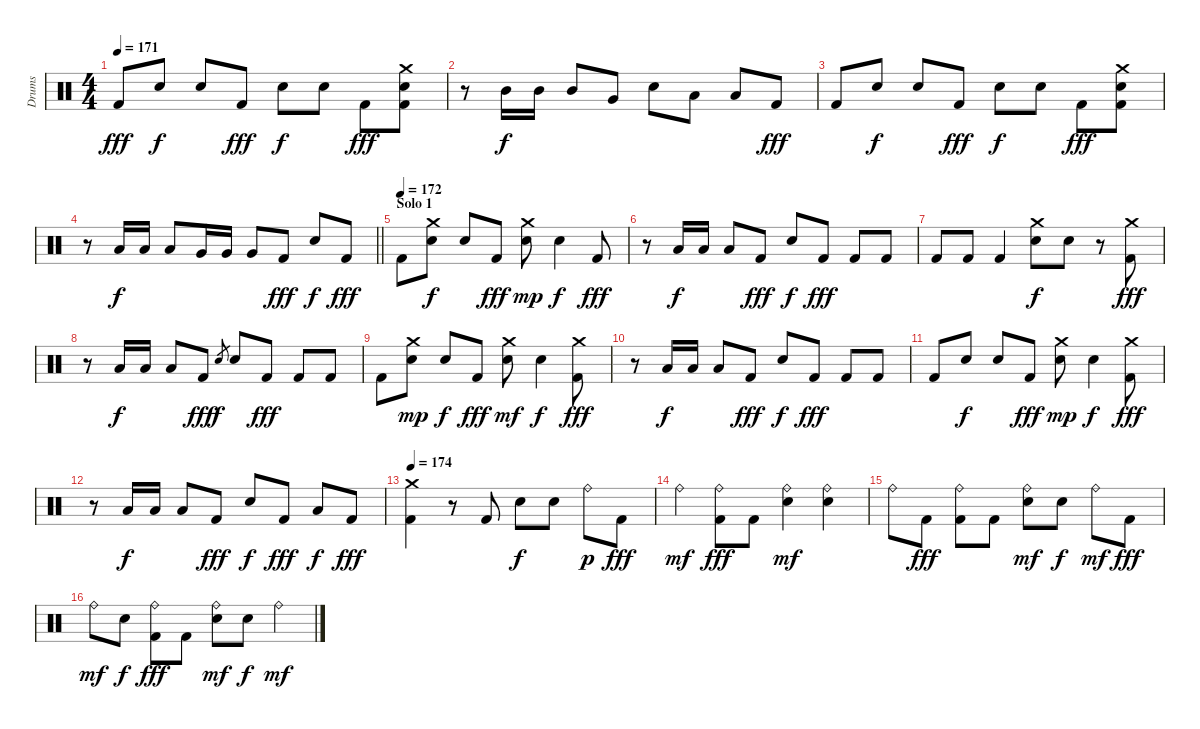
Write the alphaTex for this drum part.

\track ("Drums" "Drums") {instrument percussion}
\staff {score}
\articulation defaults
\ts (4 4)
\tempo 171
\clef neutral
\ks c "Kick (hit) 2".8{dy fff} "Electric Snare (hit)".8{dy f} "Electric Snare (hit)".8 "Kick (hit) 2".8{dy fff} "Electric Snare (hit)".8{dy f} "Electric Snare (hit)".8 "Kick (hit) 2".8{dy fff}
("Crash medium (hit)" "Electric Snare (hit)" "Kick (hit) 2").8 |
r.8 "Mid Tom (hit)".16{dy f} "Mid Tom (hit)".16 "Mid Tom (hit)".8 "Very Low Tom (hit)".8 "Electric Snare (hit)".8 "Low Floor Tom (hit)".8 "Low Floor Tom (hit)".8 "Kick (hit) 2".8{dy fff} |
"Kick (hit) 2".8 "Electric Snare (hit)".8{dy f} "Electric Snare (hit)".8 "Kick (hit) 2".8{dy fff} "Electric Snare (hit)".8{dy f} "Electric Snare (hit)".8 "Kick (hit) 2".8{dy fff} ("Crash medium (hit)" "Electric Snare (hit)" "Kick (hit) 2").8 |
\barLineRight lightlight
r.8 "Low Tom (hit)".16{dy f} "Low Tom (hit)".16 "Low Tom (hit)".8 "Very Low Tom (hit)".16 "Very Low Tom (hit)".16 "Very Low Tom (hit)".8 "Kick (hit) 2".8{dy fff} "Electric Snare (hit)".8{dy f} "Kick (hit) 2".8{dy fff} |
\section ("" "Solo 1")
\tempo (172)
"Kick (hit) 2".8 ("Crash medium (hit)" "Electric Snare (hit)").8{dy f} "Electric Snare (hit)".8 "Kick (hit) 2".8{dy fff} ("Crash medium (hit)" "Electric Snare (hit)").8{dy mp} "Electric Snare (hit)".4{dy f} "Kick (hit) 2".8{dy fff} |
r.8 "Low Floor Tom (hit)".16{dy f} "Low Floor Tom (hit)".16 "Low Floor Tom (hit)".8 "Kick (hit) 2".8{dy fff} "Electric Snare (hit)".8{dy f} "Kick (hit) 2".8{dy fff} "Kick (hit) 2".8 "Kick (hit) 2".8 |
"Kick (hit) 2".8 "Kick (hit) 2".8 "Kick (hit) 2".4 ("Crash medium (hit)" "Electric Snare (hit)").8{dy f} "Electric Snare (hit)".8 r.8 ("Crash medium (hit)" "Kick (hit) 2").8{dy fff} |
r.8 "Low Floor Tom (hit)".16{dy f} "Low Floor Tom (hit)".16 "Low Floor Tom (hit)".8 "Kick (hit) 2".8{dy fff} "Electric Snare (hit)".8{gr dy f} "Electric Snare (hit)".8 "Kick (hit) 2".8{dy fff} "Kick (hit) 2".8 "Kick (hit) 2".8 |
"Kick (hit) 2".8 ("Crash medium (hit)" "Electric Snare (hit)").8{dy mp} "Electric Snare (hit)".8{dy f} "Kick (hit) 2".8{dy fff} ("Crash medium (hit)" "Electric Snare (hit)").8{dy mf} "Electric Snare (hit)".4{dy f} ("Crash medium (hit)" "Kick (hit) 2").8{dy fff} |
r.8 "Low Floor Tom (hit)".16{dy f} "Low Floor Tom (hit)".16 "Low Floor Tom (hit)".8 "Kick (hit) 2".8{dy fff} "Electric Snare (hit)".8{dy f} "Kick (hit) 2".8{dy fff} "Kick (hit) 2".8 "Kick (hit) 2".8 |
"Kick (hit) 2".8 "Electric Snare (hit)".8{dy f} "Electric Snare (hit)".8 "Kick (hit) 2".8{dy fff} ("Crash medium (hit)" "Electric Snare (hit)").8{dy mp} "Electric Snare (hit)".4{dy f} ("Crash medium (hit)" "Kick (hit) 2").8{dy fff} |
r.8 "Low Floor Tom (hit)".16{dy f} "Low Floor Tom (hit)".16 "Low Floor Tom (hit)".8 "Kick (hit) 2".8{dy fff} "Electric Snare (hit)".8{dy f} "Kick (hit) 2".8{dy fff} "Low Floor Tom (hit)".8{dy f} "Kick (hit) 2".8{dy fff} |
\tempo 174
("Crash medium (hit)" "Kick (hit) 2").4 r.8 "Kick (hit) 2".8 "Electric Snare (hit)".8{dy f} "Electric Snare (hit)".8 "Ride (bell)".8{dy p} "Kick (hit) 2".8{dy fff} |
"Ride (bell)".4{dy mf} ("Ride (bell)" "Kick (hit) 2").8{dy fff} "Kick (hit) 2".8 ("Ride (bell)" "Electric Snare (hit)").4{dy mf} ("Ride (bell)" "Electric Snare (hit)").4 |
"Ride (bell)".8 "Kick (hit) 2".8{dy fff} ("Ride (bell)" "Kick (hit) 2").8 "Kick (hit) 2".8 ("Ride (bell)" "Electric Snare (hit)").8{dy mf} "Electric Snare (hit)".8{dy f} "Ride (bell)".8{dy mf} "Kick (hit) 2".8{dy fff} |
"Ride (bell)".8{dy mf} "Electric Snare (hit)".8{dy f} ("Ride (bell)" "Kick (hit) 2").8{dy fff} "Kick (hit) 2".8 ("Ride (bell)" "Electric Snare (hit)").8{dy mf} "Electric Snare (hit)".8{dy f} "Ride (bell)".4{dy mf}
